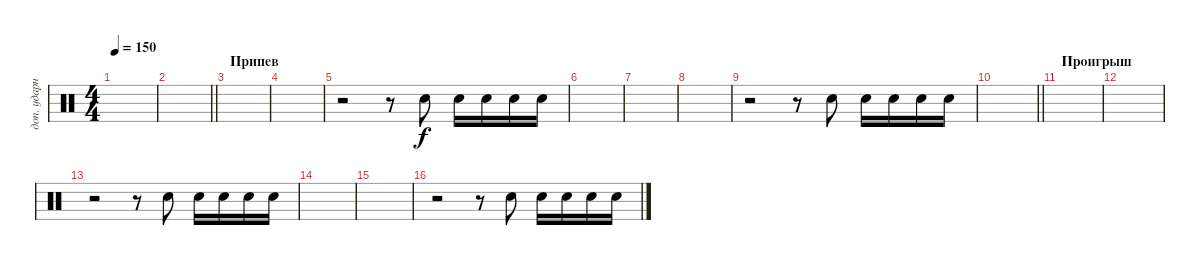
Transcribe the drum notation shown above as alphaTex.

\track ("доп. ударные" "доп. ударн") {instrument percussion}
\staff {score}
\articulation defaults
\ts (4 4)
\tempo 150
\clef neutral
\ks c
|
\barLineRight lightlight
|
\section ("" "Припев")
|
|
r.2 r.8 "Snare (hit) 2".8 "Snare (hit) 2".16 "Snare (hit) 2".16 "Snare (hit) 2".16 "Snare (hit) 2".16 |
|
|
|
r.2 r.8 "Snare (hit) 2".8 "Snare (hit) 2".16 "Snare (hit) 2".16 "Snare (hit) 2".16 "Snare (hit) 2".16 |
\barLineRight lightlight
|
\section ("" "Проигрыш")
|
|
r.2 r.8 "Snare (hit) 2".8 "Snare (hit) 2".16 "Snare (hit) 2".16 "Snare (hit) 2".16 "Snare (hit) 2".16 |
|
|
r.2 r.8 "Snare (hit) 2".8 "Snare (hit) 2".16 "Snare (hit) 2".16 "Snare (hit) 2".16 "Snare (hit) 2".16
